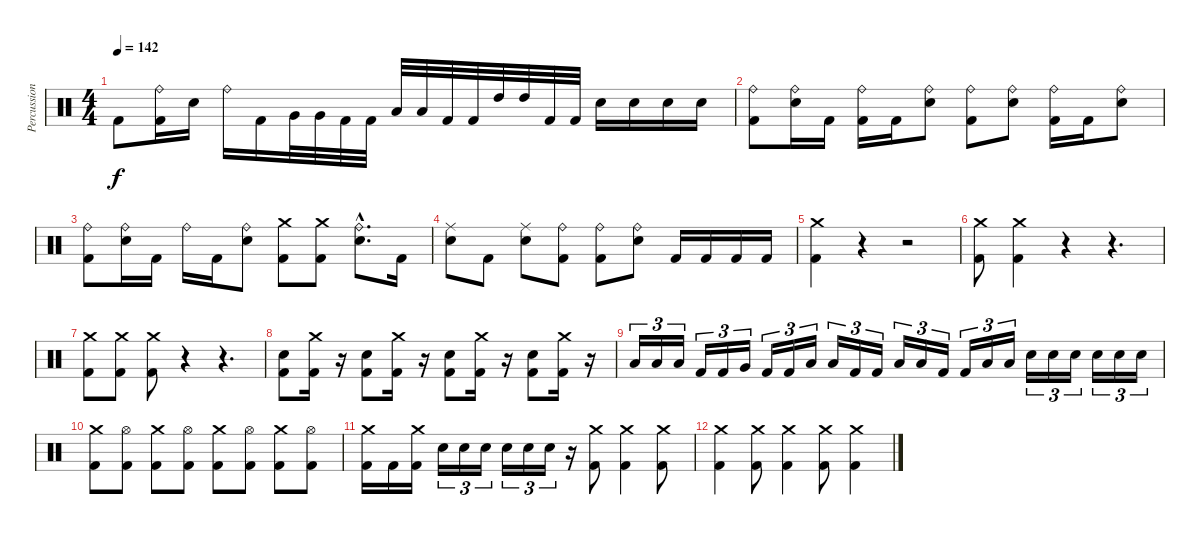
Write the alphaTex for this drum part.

\track ("Percussion" "Percussion") {instrument percussion}
\staff {score}
\articulation defaults
\ts (4 4)
\tempo 142
\clef neutral
\ks c "Kick (hit) 2".8{dy f}
("Ride (bell)" "Kick (hit) 2").16 "Electric Snare (hit)".16 "Ride (bell)".16 "Kick (hit) 2".16 "Very Low Tom (hit)".32 "Very Low Tom (hit)".32 "Kick (hit) 2".32 "Kick (hit) 2".32 "Low Tom (hit)".32 "Low Tom (hit)".32 "Kick (hit) 2".32 "Kick (hit) 2".32 "High Tom (hit)".32 "High Tom (hit)".32 "Kick (hit) 2".32 "Kick (hit) 2".32 "Electric Snare (hit)".16 "Electric Snare (hit)".16 "Electric Snare (hit)".16 "Electric Snare (hit)".16 |
("Ride (bell)" "Kick (hit) 2").8 ("Ride (bell)" "Electric Snare (hit)").16 "Kick (hit) 2".16 ("Ride (bell)" "Kick (hit) 2").16 "Kick (hit) 2".16 ("Ride (bell)" "Electric Snare (hit)").8 ("Ride (bell)" "Kick (hit) 2").8 ("Ride (bell)" "Electric Snare (hit)").8 ("Ride (bell)" "Kick (hit) 2").16 "Kick (hit) 2".16 ("Ride (bell)" "Electric Snare (hit)").8 |
("Ride (bell)" "Kick (hit) 2").8 ("Ride (bell)" "Electric Snare (hit)").16 "Kick (hit) 2".16 "Ride (bell)".16 "Kick (hit) 2".16 ("Ride (bell)" "Electric Snare (hit)").8 ("Crash medium (hit)" "Kick (hit) 2").8 ("Crash medium (hit)" "Kick (hit) 2").8 ("Ride (bell)"{hac} "Electric Snare (hit)"{hac}).8{d} "Kick (hit) 2".16 |
("Ride (middle)" "Electric Snare (hit)").8 "Kick (hit) 2".8 ("Ride (middle)" "Electric Snare (hit)").8 ("Ride (bell)" "Kick (hit) 2").8 ("Ride (bell)" "Kick (hit) 2").8 ("Ride (bell)" "Electric Snare (hit)").8 "Kick (hit) 2".16 "Kick (hit) 2".16 "Kick (hit) 2".16 "Kick (hit) 2".16 |
("Crash medium (hit)" "Kick (hit) 2").4 r.4 r.2 |
("Crash medium (hit)" "Kick (hit) 2").8 ("Crash medium (hit)" "Kick (hit) 2").4 r.4 r.4{d} |
("Crash medium (hit)" "Kick (hit) 2").8 ("Crash medium (hit)" "Kick (hit) 2").8 ("Crash medium (hit)" "Kick (hit) 2").8 r.4 r.4{d} |
("Electric Snare (hit)" "Kick (hit) 2").8 ("Crash medium (hit)" "Kick (hit) 2").16 r.16 ("Electric Snare (hit)" "Kick (hit) 2").8 ("Crash medium (hit)" "Kick (hit) 2").16 r.16 ("Electric Snare (hit)" "Kick (hit) 2").8 ("Crash medium (hit)" "Kick (hit) 2").16 r.16 ("Electric Snare (hit)" "Kick (hit) 2").8 ("Crash medium (hit)" "Kick (hit) 2").16 r.16 |
"Low Tom (hit)".16{tu (3 2)} "Low Tom (hit)".16{tu (3 2)} "Low Tom (hit)".16{tu (3 2)} "Kick (hit) 2".16{tu (3 2)} "Kick (hit) 2".16{tu (3 2)} "Very Low Tom (hit)".16{tu (3 2)} "Kick (hit) 2".16{tu (3 2)} "Kick (hit) 2".16{tu (3 2)} "Low Floor Tom (hit)".16{tu (3 2)} "Low Floor Tom (hit)".16{tu (3 2)} "Kick (hit) 2".16{tu (3 2)} "Kick (hit) 2".16{tu (3 2)} "Low Floor Tom (hit)".16{tu (3 2)} "Low Floor Tom (hit)".16{tu (3 2)} "Kick (hit) 2".16{tu (3 2)} "Kick (hit) 2".16{tu (3 2)} "Low Floor Tom (hit)".16{tu (3 2)} "Low Floor Tom (hit)".16{tu (3 2)} "Electric Snare (hit)".16{tu (3 2)} "Electric Snare (hit)".16{tu (3 2)} "Electric Snare (hit)".16{tu (3 2)} "Electric Snare (hit)".16{tu (3 2)} "Electric Snare (hit)".16{tu (3 2)} "Electric Snare (hit)".16{tu (3 2)} |
("Crash medium (hit)" "Kick (hit) 2").8 ("Hi-Hat (open)" "Kick (hit) 2").8 ("Crash medium (hit)" "Kick (hit) 2").8 ("Hi-Hat (open)" "Kick (hit) 2").8 ("Crash medium (hit)" "Kick (hit) 2").8 ("Hi-Hat (open)" "Kick (hit) 2").8 ("Crash medium (hit)" "Kick (hit) 2").8 ("Hi-Hat (open)" "Kick (hit) 2").8 |
("Crash medium (hit)" "Kick (hit) 2").16 "Kick (hit) 2".16 ("Crash medium (hit)" "Kick (hit) 2").16 "Electric Snare (hit)".16{tu (3 2)} "Electric Snare (hit)".16{tu (3 2)} "Electric Snare (hit)".16{tu (3 2)} "Electric Snare (hit)".16{tu (3 2)} "Electric Snare (hit)".16{tu (3 2)} "Electric Snare (hit)".16{tu (3 2)} r.16 ("Crash medium (hit)" "Kick (hit) 2").8 ("Crash medium (hit)" "Kick (hit) 2").4 ("Crash medium (hit)" "Kick (hit) 2").8 |
("Crash medium (hit)" "Kick (hit) 2").4 ("Crash medium (hit)" "Kick (hit) 2").8 ("Crash medium (hit)" "Kick (hit) 2").4 ("Crash medium (hit)" "Kick (hit) 2").8 ("Crash medium (hit)" "Kick (hit) 2").4
